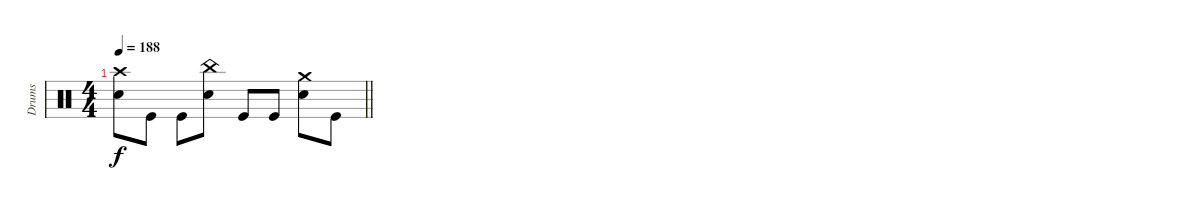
\track ("Drums" "Drums") {instrument percussion}
\staff
\articulation defaults
\ts (4 4)
\tempo 188
\clef neutral
\barLineRight lightlight
\ks c
("Crash high (hit)" "Electric Snare (hit)").8{dy f} "Kick (hit)".8 "Kick (hit)".8 ("China (hit)" "Electric Snare (hit)").8 "Kick (hit)".8 "Kick (hit)".8 ("Crash medium (hit)" "Electric Snare (hit)").8 "Kick (hit)".8
